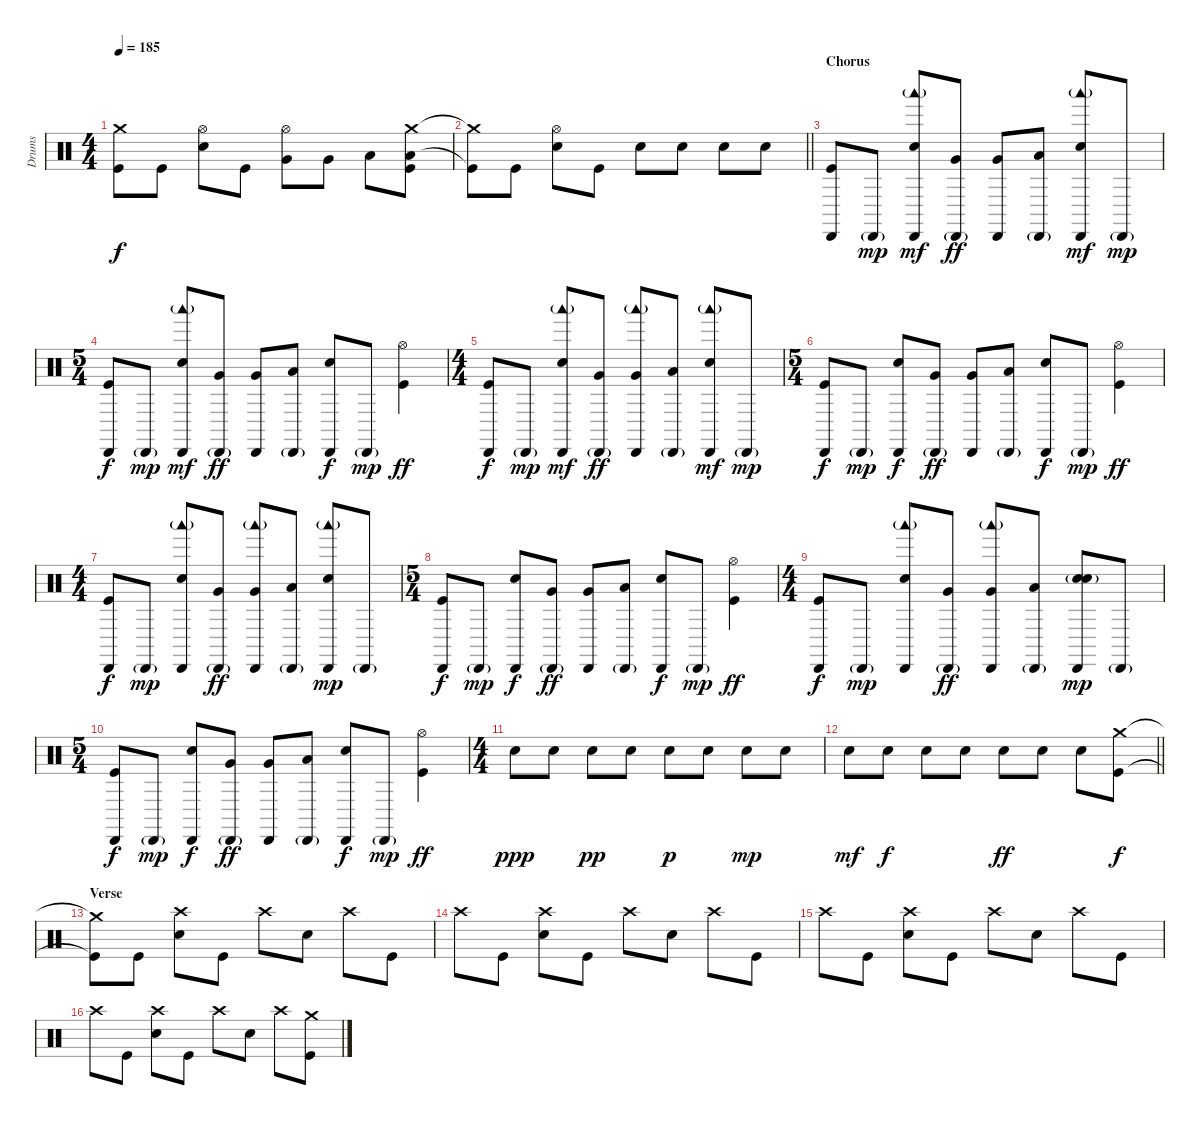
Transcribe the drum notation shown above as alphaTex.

\track ("Drums" "Drums") {instrument percussion}
\staff {score}
\articulation defaults
\ts (4 4)
\tempo 185
\clef neutral
\ks c
("Crash medium (hit)"{t} "Kick (hit)"{t}).8{dy f} "Kick (hit)".8 ("Hi-Hat (open)" "Snare (hit) 2").8 "Kick (hit)".8 ("Hi-Hat (open)" "Very Low Tom (hit)").8 "Very Low Tom (hit)".8 "Low Floor Tom (hit)".8 ("Crash medium (hit)" "Low Floor Tom (hit)" "Kick (hit)").8 |
\barLineRight lightlight
("Crash medium (hit)"{t} "Kick (hit)"{t}).8 "Kick (hit)".8 ("Hi-Hat (open)" "Snare (hit) 2").8 "Kick (hit)".8 "Snare (hit) 2".8 "Snare (hit) 2".8 "Snare (hit) 2".8 "Snare (hit) 2".8 |
\section ("" "Chorus")
("Cabasa (hit)" "Kick (hit)").8 "Cabasa (hit)"{g}.8{dy mp} ("Woodblock low (hit)"{g} "Cabasa (hit)" "Snare (hit) 2").8{dy mf} ("Cabasa (hit)"{g} "Very Low Tom (hit)").8{dy ff} ("Cabasa (hit)" "Very Low Tom (hit)").8 ("Cabasa (hit)"{g} "Low Floor Tom (hit)").8 ("Woodblock low (hit)"{g} "Cabasa (hit)" "Snare (hit) 2").8{dy mf} "Cabasa (hit)"{g}.8{dy mp} |
\ts (5 4)
("Cabasa (hit)" "Kick (hit)").8{dy f} "Cabasa (hit)"{g}.8{dy mp} ("Woodblock low (hit)"{g} "Cabasa (hit)" "Snare (hit) 2").8{dy mf} ("Cabasa (hit)"{g} "Very Low Tom (hit)").8{dy ff} ("Cabasa (hit)" "Very Low Tom (hit)").8 ("Cabasa (hit)"{g} "Low Floor Tom (hit)").8 ("Cabasa (hit)" "Snare (hit) 2").8{dy f} "Cabasa (hit)"{g}.8{dy mp} ("Hi-Hat (open)" "Kick (hit)").4{dy ff} |
\ts (4 4)
("Cabasa (hit)" "Kick (hit)").8{dy f} "Cabasa (hit)"{g}.8{dy mp} ("Woodblock low (hit)"{g} "Cabasa (hit)" "Snare (hit) 2").8{dy mf} ("Cabasa (hit)"{g} "Very Low Tom (hit)").8{dy ff} ("Woodblock low (hit)"{g} "Cabasa (hit)" "Very Low Tom (hit)").8 ("Cabasa (hit)"{g} "Low Floor Tom (hit)").8 ("Woodblock low (hit)"{g} "Cabasa (hit)" "Snare (hit) 2").8{dy mf} "Cabasa (hit)"{g}.8{dy mp} |
\ts (5 4)
("Cabasa (hit)" "Kick (hit)").8{dy f} "Cabasa (hit)"{g}.8{dy mp} ("Cabasa (hit)" "Snare (hit) 2").8{dy f} ("Cabasa (hit)"{g} "Very Low Tom (hit)").8{dy ff} ("Cabasa (hit)" "Very Low Tom (hit)").8 ("Cabasa (hit)"{g} "Low Floor Tom (hit)").8 ("Cabasa (hit)" "Snare (hit) 2").8{dy f} "Cabasa (hit)"{g}.8{dy mp} ("Hi-Hat (open)" "Kick (hit)").4{dy ff} |
\ts (4 4)
("Cabasa (hit)" "Kick (hit)").8{dy f} "Cabasa (hit)"{g}.8{dy mp} ("Woodblock low (hit)"{g} "Cabasa (hit)" "Snare (hit) 2").8 ("Cabasa (hit)"{g} "Very Low Tom (hit)").8{dy ff} ("Woodblock low (hit)"{g} "Cabasa (hit)" "Very Low Tom (hit)").8 ("Cabasa (hit)"{g} "Low Floor Tom (hit)").8 ("Woodblock low (hit)"{g} "Cabasa (hit)" "Snare (hit) 2").8{dy mp} "Cabasa (hit)"{g}.8 |
\ts (5 4)
("Cabasa (hit)" "Kick (hit)").8{dy f} "Cabasa (hit)"{g}.8{dy mp} ("Cabasa (hit)" "Snare (hit) 2").8{dy f} ("Cabasa (hit)"{g} "Very Low Tom (hit)").8{dy ff} ("Cabasa (hit)" "Very Low Tom (hit)").8 ("Cabasa (hit)"{g} "Low Floor Tom (hit)").8 ("Cabasa (hit)" "Snare (hit) 2").8{dy f} "Cabasa (hit)"{g}.8{dy mp} ("Hi-Hat (open)" "Kick (hit)").4{dy ff} |
\ts (4 4)
("Cabasa (hit)" "Kick (hit)").8{dy f} "Cabasa (hit)"{g}.8{dy mp} ("Woodblock low (hit)"{g} "Cabasa (hit)" "Snare (hit) 2").8 ("Cabasa (hit)"{g} "Very Low Tom (hit)").8{dy ff} ("Woodblock low (hit)"{g} "Cabasa (hit)" "Very Low Tom (hit)").8 ("Cabasa (hit)"{g} "Low Floor Tom (hit)").8 ("Snare (hit)"{g} "Cabasa (hit)" "Snare (hit) 2").8{dy mp} "Cabasa (hit)"{g}.8 |
\ts (5 4)
("Cabasa (hit)" "Kick (hit)").8{dy f} "Cabasa (hit)"{g}.8{dy mp} ("Cabasa (hit)" "Snare (hit) 2").8{dy f} ("Cabasa (hit)"{g} "Very Low Tom (hit)").8{dy ff} ("Cabasa (hit)" "Very Low Tom (hit)").8 ("Cabasa (hit)"{g} "Low Floor Tom (hit)").8 ("Cabasa (hit)" "Snare (hit) 2").8{dy f} "Cabasa (hit)"{g}.8{dy mp} ("Hi-Hat (open)" "Kick (hit)").4{dy ff} |
\ts (4 4)
"Snare (hit) 2".8{dy ppp} "Snare (hit) 2".8 "Snare (hit) 2".8{dy pp} "Snare (hit) 2".8 "Snare (hit) 2".8{dy p} "Snare (hit) 2".8 "Snare (hit) 2".8{dy mp} "Snare (hit) 2".8 |
\barLineRight lightlight "Snare (hit) 2".8{dy mf} "Snare (hit) 2".8{dy f} "Snare (hit) 2".8 "Snare (hit) 2".8 "Snare (hit) 2".8{dy ff} "Snare (hit) 2".8 "Snare (hit) 2".8
("Crash medium (hit)" "Kick (hit)").8{dy f} |
\section ("" "Verse")
("Crash medium (hit)"{t} "Kick (hit)"{t}).8 "Kick (hit)".8 ("Crash high (hit)" "Snare (hit) 2").8 "Kick (hit)".8 "Crash high (hit)".8 "Snare (hit) 2".8 "Crash high (hit)".8 "Kick (hit)".8 |
"Crash high (hit)".8 "Kick (hit)".8 ("Crash high (hit)" "Snare (hit) 2").8 "Kick (hit)".8 "Crash high (hit)".8 "Snare (hit) 2".8 "Crash high (hit)".8 "Kick (hit)".8 |
"Crash high (hit)".8 "Kick (hit)".8 ("Crash high (hit)" "Snare (hit) 2").8 "Kick (hit)".8 "Crash high (hit)".8 "Snare (hit) 2".8 "Crash high (hit)".8 "Kick (hit)".8 |
"Crash high (hit)".8 "Kick (hit)".8 ("Crash high (hit)" "Snare (hit) 2").8 "Kick (hit)".8 "Crash high (hit)".8 "Snare (hit) 2".8 "Crash high (hit)".8 ("Crash medium (hit)" "Kick (hit)").8
